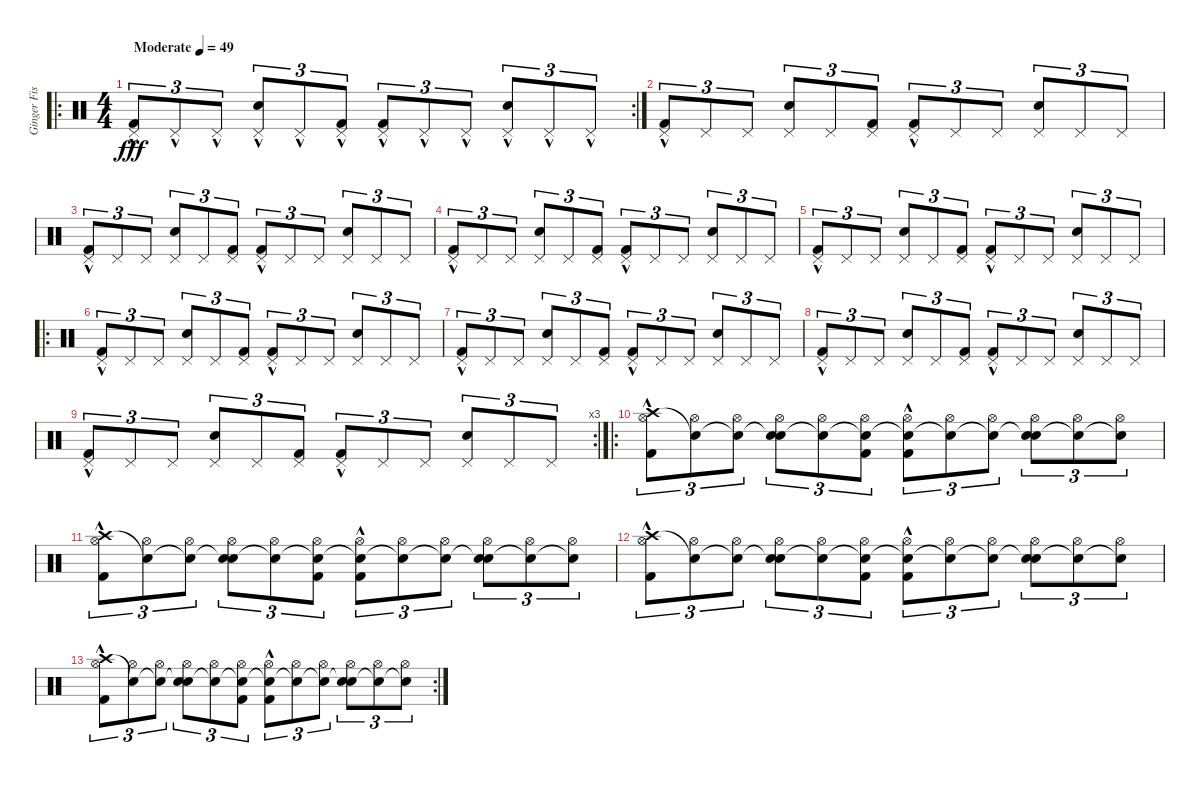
\track ("Ginger Fish" "Ginger Fis") {instrument percussion}
\staff {score}
\articulation defaults
\ro
\rc 2
\ts (4 4)
\tempo (49 "Moderate")
\clef neutral
\ks c
("Pedal Hi-Hat (hit)"{hac} "Kick (hit) 2"{hac}).8{tu (3 2) dy fff} "Pedal Hi-Hat (hit)"{hac}.8{tu (3 2)} "Pedal Hi-Hat (hit)"{hac}.8{tu (3 2)} ("Snare (hit) 2" "Pedal Hi-Hat (hit)"{hac}).8{tu (3 2)} "Pedal Hi-Hat (hit)"{hac}.8{tu (3 2)} ("Pedal Hi-Hat (hit)"{hac} "Kick (hit) 2").8{tu (3 2)} ("Pedal Hi-Hat (hit)"{hac} "Kick (hit) 2"{hac}).8{tu (3 2)} "Pedal Hi-Hat (hit)"{hac}.8{tu (3 2)} "Pedal Hi-Hat (hit)"{hac}.8{tu (3 2)} ("Snare (hit) 2" "Pedal Hi-Hat (hit)"{hac}).8{tu (3 2)} "Pedal Hi-Hat (hit)"{hac}.8{tu (3 2)} "Pedal Hi-Hat (hit)"{hac}.8{tu (3 2)} |
("Pedal Hi-Hat (hit)" "Kick (hit) 2"{hac}).8{tu (3 2)} "Pedal Hi-Hat (hit)".8{tu (3 2)} "Pedal Hi-Hat (hit)".8{tu (3 2)} ("Snare (hit) 2" "Pedal Hi-Hat (hit)").8{tu (3 2)} "Pedal Hi-Hat (hit)".8{tu (3 2)} ("Pedal Hi-Hat (hit)" "Kick (hit) 2").8{tu (3 2)} ("Pedal Hi-Hat (hit)" "Kick (hit) 2"{hac}).8{tu (3 2)} "Pedal Hi-Hat (hit)".8{tu (3 2)} "Pedal Hi-Hat (hit)".8{tu (3 2)} ("Snare (hit) 2" "Pedal Hi-Hat (hit)").8{tu (3 2)} "Pedal Hi-Hat (hit)".8{tu (3 2)} "Pedal Hi-Hat (hit)".8{tu (3 2)} |
("Pedal Hi-Hat (hit)" "Kick (hit) 2"{hac}).8{tu (3 2)} "Pedal Hi-Hat (hit)".8{tu (3 2)} "Pedal Hi-Hat (hit)".8{tu (3 2)} ("Snare (hit) 2" "Pedal Hi-Hat (hit)").8{tu (3 2)} "Pedal Hi-Hat (hit)".8{tu (3 2)} ("Pedal Hi-Hat (hit)" "Kick (hit) 2").8{tu (3 2)} ("Pedal Hi-Hat (hit)" "Kick (hit) 2"{hac}).8{tu (3 2)} "Pedal Hi-Hat (hit)".8{tu (3 2)} "Pedal Hi-Hat (hit)".8{tu (3 2)} ("Snare (hit) 2" "Pedal Hi-Hat (hit)").8{tu (3 2)} "Pedal Hi-Hat (hit)".8{tu (3 2)} "Pedal Hi-Hat (hit)".8{tu (3 2)} |
("Pedal Hi-Hat (hit)" "Kick (hit) 2"{hac}).8{tu (3 2)} "Pedal Hi-Hat (hit)".8{tu (3 2)} "Pedal Hi-Hat (hit)".8{tu (3 2)} ("Snare (hit) 2" "Pedal Hi-Hat (hit)").8{tu (3 2)} "Pedal Hi-Hat (hit)".8{tu (3 2)} ("Pedal Hi-Hat (hit)" "Kick (hit) 2").8{tu (3 2)} ("Pedal Hi-Hat (hit)" "Kick (hit) 2"{hac}).8{tu (3 2)} "Pedal Hi-Hat (hit)".8{tu (3 2)} "Pedal Hi-Hat (hit)".8{tu (3 2)} ("Snare (hit) 2" "Pedal Hi-Hat (hit)").8{tu (3 2)} "Pedal Hi-Hat (hit)".8{tu (3 2)} "Pedal Hi-Hat (hit)".8{tu (3 2)} |
("Pedal Hi-Hat (hit)" "Kick (hit) 2"{hac}).8{tu (3 2)} "Pedal Hi-Hat (hit)".8{tu (3 2)} "Pedal Hi-Hat (hit)".8{tu (3 2)} ("Snare (hit) 2" "Pedal Hi-Hat (hit)").8{tu (3 2)} "Pedal Hi-Hat (hit)".8{tu (3 2)} ("Pedal Hi-Hat (hit)" "Kick (hit) 2").8{tu (3 2)} ("Pedal Hi-Hat (hit)" "Kick (hit) 2"{hac}).8{tu (3 2)} "Pedal Hi-Hat (hit)".8{tu (3 2)} "Pedal Hi-Hat (hit)".8{tu (3 2)} ("Snare (hit) 2" "Pedal Hi-Hat (hit)").8{tu (3 2)} "Pedal Hi-Hat (hit)".8{tu (3 2)} "Pedal Hi-Hat (hit)".8{tu (3 2)} |
\ro
("Pedal Hi-Hat (hit)" "Kick (hit) 2"{hac}).8{tu (3 2)} "Pedal Hi-Hat (hit)".8{tu (3 2)} "Pedal Hi-Hat (hit)".8{tu (3 2)} ("Snare (hit) 2" "Pedal Hi-Hat (hit)").8{tu (3 2)} "Pedal Hi-Hat (hit)".8{tu (3 2)} ("Pedal Hi-Hat (hit)" "Kick (hit) 2").8{tu (3 2)} ("Pedal Hi-Hat (hit)" "Kick (hit) 2"{hac}).8{tu (3 2)} "Pedal Hi-Hat (hit)".8{tu (3 2)} "Pedal Hi-Hat (hit)".8{tu (3 2)} ("Snare (hit) 2" "Pedal Hi-Hat (hit)").8{tu (3 2)} "Pedal Hi-Hat (hit)".8{tu (3 2)} "Pedal Hi-Hat (hit)".8{tu (3 2)} |
("Pedal Hi-Hat (hit)" "Kick (hit) 2"{hac}).8{tu (3 2)} "Pedal Hi-Hat (hit)".8{tu (3 2)} "Pedal Hi-Hat (hit)".8{tu (3 2)} ("Snare (hit) 2" "Pedal Hi-Hat (hit)").8{tu (3 2)} "Pedal Hi-Hat (hit)".8{tu (3 2)} ("Pedal Hi-Hat (hit)" "Kick (hit) 2").8{tu (3 2)} ("Pedal Hi-Hat (hit)" "Kick (hit) 2"{hac}).8{tu (3 2)} "Pedal Hi-Hat (hit)".8{tu (3 2)} "Pedal Hi-Hat (hit)".8{tu (3 2)} ("Snare (hit) 2" "Pedal Hi-Hat (hit)").8{tu (3 2)} "Pedal Hi-Hat (hit)".8{tu (3 2)} "Pedal Hi-Hat (hit)".8{tu (3 2)} |
("Pedal Hi-Hat (hit)" "Kick (hit) 2"{hac}).8{tu (3 2)} "Pedal Hi-Hat (hit)".8{tu (3 2)} "Pedal Hi-Hat (hit)".8{tu (3 2)} ("Snare (hit) 2" "Pedal Hi-Hat (hit)").8{tu (3 2)} "Pedal Hi-Hat (hit)".8{tu (3 2)} ("Pedal Hi-Hat (hit)" "Kick (hit) 2").8{tu (3 2)} ("Pedal Hi-Hat (hit)" "Kick (hit) 2"{hac}).8{tu (3 2)} "Pedal Hi-Hat (hit)".8{tu (3 2)} "Pedal Hi-Hat (hit)".8{tu (3 2)} ("Snare (hit) 2" "Pedal Hi-Hat (hit)").8{tu (3 2)} "Pedal Hi-Hat (hit)".8{tu (3 2)} "Pedal Hi-Hat (hit)".8{tu (3 2)} |
\rc 3
("Pedal Hi-Hat (hit)" "Kick (hit) 2"{hac}).8{tu (3 2)} "Pedal Hi-Hat (hit)".8{tu (3 2)} "Pedal Hi-Hat (hit)".8{tu (3 2)} ("Snare (hit) 2" "Pedal Hi-Hat (hit)").8{tu (3 2)} "Pedal Hi-Hat (hit)".8{tu (3 2)} ("Pedal Hi-Hat (hit)" "Kick (hit) 2").8{tu (3 2)} ("Pedal Hi-Hat (hit)" "Kick (hit) 2"{hac}).8{tu (3 2)} "Pedal Hi-Hat (hit)".8{tu (3 2)} "Pedal Hi-Hat (hit)".8{tu (3 2)} ("Snare (hit) 2" "Pedal Hi-Hat (hit)").8{tu (3 2)} "Pedal Hi-Hat (hit)".8{tu (3 2)} "Pedal Hi-Hat (hit)".8{tu (3 2)} |
\ro
("Crash high (hit)"{hac} "Hi-Hat (open)" "Kick (hit) 2").8{tu (3 2)} ("Snare (hit)"{t} "Hi-Hat (open)").8{tu (3 2)} ("Snare (hit)"{t} "Hi-Hat (open)").8{tu (3 2)} ("Snare (hit)"{t} "Snare (hit) 2" "Hi-Hat (open)").8{tu (3 2)} ("Snare (hit)"{t} "Hi-Hat (open)").8{tu (3 2)} ("Snare (hit)"{t} "Hi-Hat (open)" "Kick (hit) 2").8{tu (3 2)} ("Snare (hit)"{t} "Hi-Hat (open)" "Kick (hit) 2"{hac}).8{tu (3 2)} ("Snare (hit)"{t} "Hi-Hat (open)").8{tu (3 2)} ("Snare (hit)"{t} "Hi-Hat (open)").8{tu (3 2)} ("Snare (hit)"{t} "Snare (hit) 2" "Hi-Hat (open)").8{tu (3 2)} ("Snare (hit)"{t} "Hi-Hat (open)").8{tu (3 2)} ("Snare (hit)"{t} "Hi-Hat (open)").8{tu (3 2)} |
("Crash high (hit)"{hac} "Hi-Hat (open)" "Kick (hit) 2").8{tu (3 2)} ("Snare (hit)"{t} "Hi-Hat (open)").8{tu (3 2)} ("Snare (hit)"{t} "Hi-Hat (open)").8{tu (3 2)} ("Snare (hit)"{t} "Snare (hit) 2" "Hi-Hat (open)").8{tu (3 2)} ("Snare (hit)"{t} "Hi-Hat (open)").8{tu (3 2)} ("Snare (hit)"{t} "Hi-Hat (open)" "Kick (hit) 2").8{tu (3 2)} ("Snare (hit)"{t} "Hi-Hat (open)" "Kick (hit) 2"{hac}).8{tu (3 2)} ("Snare (hit)"{t} "Hi-Hat (open)").8{tu (3 2)} ("Snare (hit)"{t} "Hi-Hat (open)").8{tu (3 2)} ("Snare (hit)"{t} "Snare (hit) 2" "Hi-Hat (open)").8{tu (3 2)} ("Snare (hit)"{t} "Hi-Hat (open)").8{tu (3 2)} ("Snare (hit)"{t} "Hi-Hat (open)").8{tu (3 2)} |
("Crash high (hit)"{hac} "Hi-Hat (open)" "Kick (hit) 2").8{tu (3 2)} ("Snare (hit)"{t} "Hi-Hat (open)").8{tu (3 2)} ("Snare (hit)"{t} "Hi-Hat (open)").8{tu (3 2)} ("Snare (hit)"{t} "Snare (hit) 2" "Hi-Hat (open)").8{tu (3 2)} ("Snare (hit)"{t} "Hi-Hat (open)").8{tu (3 2)} ("Snare (hit)"{t} "Hi-Hat (open)" "Kick (hit) 2").8{tu (3 2)} ("Snare (hit)"{t} "Hi-Hat (open)" "Kick (hit) 2"{hac}).8{tu (3 2)} ("Snare (hit)"{t} "Hi-Hat (open)").8{tu (3 2)} ("Snare (hit)"{t} "Hi-Hat (open)").8{tu (3 2)} ("Snare (hit)"{t} "Snare (hit) 2" "Hi-Hat (open)").8{tu (3 2)} ("Snare (hit)"{t} "Hi-Hat (open)").8{tu (3 2)} ("Snare (hit)"{t} "Hi-Hat (open)").8{tu (3 2)} |
\rc 2
("Crash high (hit)"{hac} "Hi-Hat (open)" "Kick (hit) 2").8{tu (3 2)} ("Snare (hit)"{t} "Hi-Hat (open)").8{tu (3 2)} ("Snare (hit)"{t} "Hi-Hat (open)").8{tu (3 2)} ("Snare (hit)"{t} "Snare (hit) 2" "Hi-Hat (open)").8{tu (3 2)} ("Snare (hit)"{t} "Hi-Hat (open)").8{tu (3 2)} ("Snare (hit)"{t} "Hi-Hat (open)" "Kick (hit) 2").8{tu (3 2)} ("Snare (hit)"{t} "Hi-Hat (open)" "Kick (hit) 2"{hac}).8{tu (3 2)} ("Snare (hit)"{t} "Hi-Hat (open)").8{tu (3 2)} ("Snare (hit)"{t} "Hi-Hat (open)").8{tu (3 2)} ("Snare (hit)"{t} "Snare (hit) 2" "Hi-Hat (open)").8{tu (3 2)} ("Snare (hit)"{t} "Hi-Hat (open)").8{tu (3 2)} ("Snare (hit)"{t} "Hi-Hat (open)").8{tu (3 2)}
